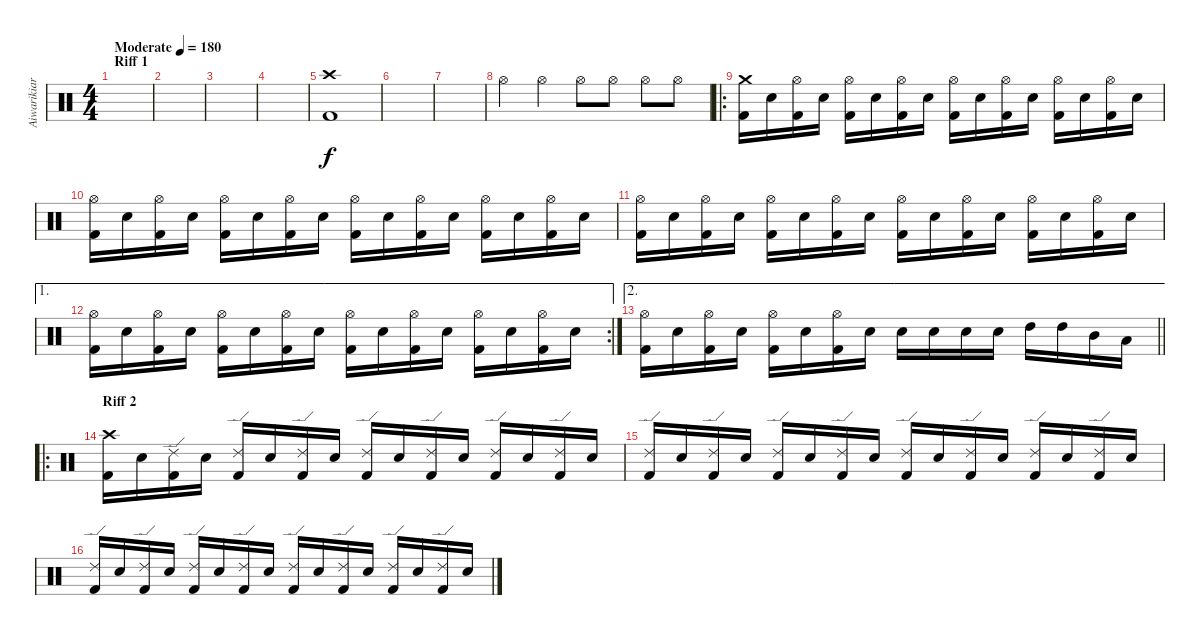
\track ("Aiwarikiar" "Aiwarikiar") {instrument percussion}
\staff {score}
\articulation defaults
\ts (4 4)
\section ("" "Riff 1")
\tempo (180 "Moderate")
\clef neutral
\ks c
|
|
|
|
("Crash high (hit)" "Kick (hit) 2").1 |
|
|
"Hi-Hat (open)".4 "Hi-Hat (open)".4 "Hi-Hat (open)".8 "Hi-Hat (open)".8 "Hi-Hat (open)".8 "Hi-Hat (open)".8 |
\ro
("Crash medium (hit)" "Kick (hit) 2").16 "Electric Snare (hit)".16 ("Hi-Hat (open)" "Kick (hit) 2").16 "Electric Snare (hit)".16 ("Hi-Hat (open)" "Kick (hit) 2").16 "Electric Snare (hit)".16 ("Hi-Hat (open)" "Kick (hit) 2").16 "Electric Snare (hit)".16 ("Hi-Hat (open)" "Kick (hit) 2").16 "Electric Snare (hit)".16 ("Hi-Hat (open)" "Kick (hit) 2").16 "Electric Snare (hit)".16 ("Hi-Hat (open)" "Kick (hit) 2").16 "Electric Snare (hit)".16 ("Hi-Hat (open)" "Kick (hit) 2").16 "Electric Snare (hit)".16 |
("Hi-Hat (open)" "Kick (hit) 2").16 "Electric Snare (hit)".16 ("Hi-Hat (open)" "Kick (hit) 2").16 "Electric Snare (hit)".16 ("Hi-Hat (open)" "Kick (hit) 2").16 "Electric Snare (hit)".16 ("Hi-Hat (open)" "Kick (hit) 2").16 "Electric Snare (hit)".16 ("Hi-Hat (open)" "Kick (hit) 2").16 "Electric Snare (hit)".16 ("Hi-Hat (open)" "Kick (hit) 2").16 "Electric Snare (hit)".16 ("Hi-Hat (open)" "Kick (hit) 2").16 "Electric Snare (hit)".16 ("Hi-Hat (open)" "Kick (hit) 2").16 "Electric Snare (hit)".16 |
("Hi-Hat (open)" "Kick (hit) 2").16 "Electric Snare (hit)".16 ("Hi-Hat (open)" "Kick (hit) 2").16 "Electric Snare (hit)".16 ("Hi-Hat (open)" "Kick (hit) 2").16 "Electric Snare (hit)".16 ("Hi-Hat (open)" "Kick (hit) 2").16 "Electric Snare (hit)".16 ("Hi-Hat (open)" "Kick (hit) 2").16 "Electric Snare (hit)".16 ("Hi-Hat (open)" "Kick (hit) 2").16 "Electric Snare (hit)".16 ("Hi-Hat (open)" "Kick (hit) 2").16 "Electric Snare (hit)".16 ("Hi-Hat (open)" "Kick (hit) 2").16 "Electric Snare (hit)".16 |
\ae 1
\rc 2
("Hi-Hat (open)" "Kick (hit) 2").16 "Electric Snare (hit)".16 ("Hi-Hat (open)" "Kick (hit) 2").16 "Electric Snare (hit)".16 ("Hi-Hat (open)" "Kick (hit) 2").16 "Electric Snare (hit)".16 ("Hi-Hat (open)" "Kick (hit) 2").16 "Electric Snare (hit)".16 ("Hi-Hat (open)" "Kick (hit) 2").16 "Electric Snare (hit)".16 ("Hi-Hat (open)" "Kick (hit) 2").16 "Electric Snare (hit)".16 ("Hi-Hat (open)" "Kick (hit) 2").16 "Electric Snare (hit)".16 ("Hi-Hat (open)" "Kick (hit) 2").16 "Electric Snare (hit)".16 |
\ae 2
\barLineRight lightlight
("Hi-Hat (open)" "Kick (hit) 2").16 "Electric Snare (hit)".16 ("Hi-Hat (open)" "Kick (hit) 2").16 "Electric Snare (hit)".16 ("Hi-Hat (open)" "Kick (hit) 2").16 "Electric Snare (hit)".16 ("Hi-Hat (open)" "Kick (hit) 2").16 "Electric Snare (hit)".16 "Electric Snare (hit)".16 "Electric Snare (hit)".16 "Electric Snare (hit)".16 "Electric Snare (hit)".16 "High Tom (hit)".16 "High Tom (hit)".16 "Mid Tom (hit)".16 "Low Tom (hit)".16 |
\ro
\section ("" "Riff 2")
("Crash high (hit)" "Kick (hit) 2").16 "Electric Snare (hit)".16 ("Ride (edge) 2" "Kick (hit) 2").16 "Electric Snare (hit)".16 ("Ride (edge) 2" "Kick (hit) 2").16 "Electric Snare (hit)".16 ("Ride (edge) 2" "Kick (hit) 2").16 "Electric Snare (hit)".16 ("Ride (edge) 2" "Kick (hit) 2").16 "Electric Snare (hit)".16 ("Ride (edge) 2" "Kick (hit) 2").16 "Electric Snare (hit)".16 ("Ride (edge) 2" "Kick (hit) 2").16 "Electric Snare (hit)".16 ("Ride (edge) 2" "Kick (hit) 2").16 "Electric Snare (hit)".16 |
("Ride (edge) 2" "Kick (hit) 2").16 "Electric Snare (hit)".16 ("Ride (edge) 2" "Kick (hit) 2").16 "Electric Snare (hit)".16 ("Ride (edge) 2" "Kick (hit) 2").16 "Electric Snare (hit)".16 ("Ride (edge) 2" "Kick (hit) 2").16 "Electric Snare (hit)".16 ("Ride (edge) 2" "Kick (hit) 2").16 "Electric Snare (hit)".16 ("Ride (edge) 2" "Kick (hit) 2").16 "Electric Snare (hit)".16 ("Ride (edge) 2" "Kick (hit) 2").16 "Electric Snare (hit)".16 ("Ride (edge) 2" "Kick (hit) 2").16 "Electric Snare (hit)".16 |
("Ride (edge) 2" "Kick (hit) 2").16 "Electric Snare (hit)".16 ("Ride (edge) 2" "Kick (hit) 2").16 "Electric Snare (hit)".16 ("Ride (edge) 2" "Kick (hit) 2").16 "Electric Snare (hit)".16 ("Ride (edge) 2" "Kick (hit) 2").16 "Electric Snare (hit)".16 ("Ride (edge) 2" "Kick (hit) 2").16 "Electric Snare (hit)".16 ("Ride (edge) 2" "Kick (hit) 2").16 "Electric Snare (hit)".16 ("Ride (edge) 2" "Kick (hit) 2").16 "Electric Snare (hit)".16 ("Ride (edge) 2" "Kick (hit) 2").16 "Electric Snare (hit)".16
